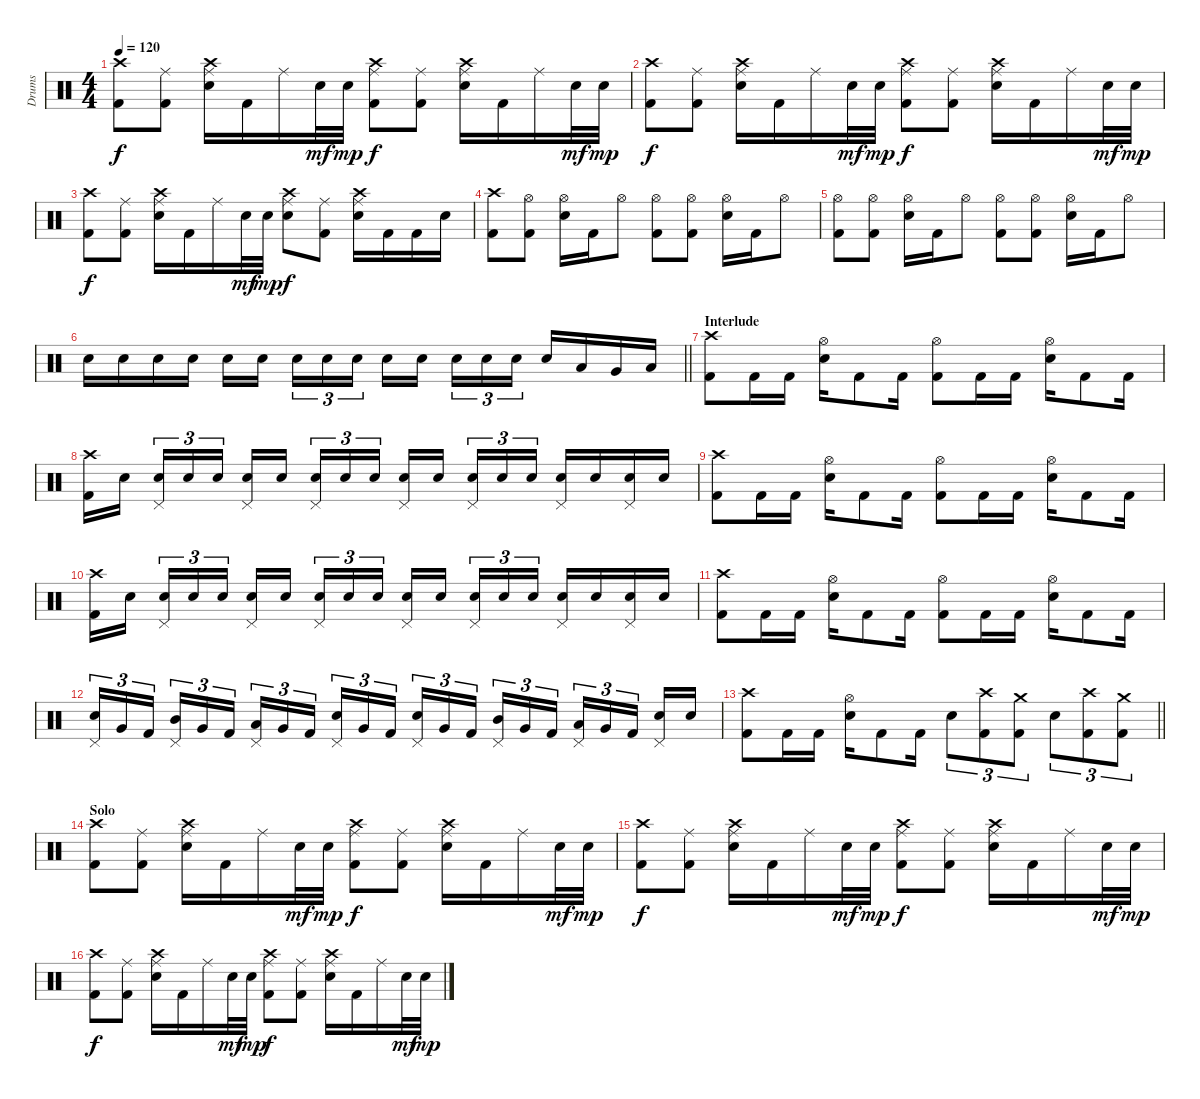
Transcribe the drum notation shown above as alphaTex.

\track ("Drums" "Drums") {instrument percussion}
\staff {score}
\articulation defaults
\ts (4 4)
\tempo 120
\clef neutral
\ks c
("Crash high (hit)" "Kick (hit) 2").8{dy f} ("Ride (middle)" "Kick (hit) 2").8 ("Ride (middle)" "Crash high (hit)" "Snare (hit) 2").16 "Kick (hit) 2".16 "Ride (middle)".16 "Snare (hit) 2".32{dy mf} "Snare (hit) 2".32{dy mp} ("Ride (middle)" "Crash high (hit)" "Kick (hit) 2").8{dy f} ("Ride (middle)" "Kick (hit) 2").8 ("Ride (middle)" "Crash high (hit)" "Snare (hit) 2").16 "Kick (hit) 2".16 "Ride (middle)".16 "Snare (hit) 2".32{dy mf} "Snare (hit) 2".32{dy mp} |
("Crash high (hit)" "Kick (hit) 2").8{dy f} ("Ride (middle)" "Kick (hit) 2").8 ("Ride (middle)" "Crash high (hit)" "Snare (hit) 2").16 "Kick (hit) 2".16 "Ride (middle)".16 "Snare (hit) 2".32{dy mf} "Snare (hit) 2".32{dy mp} ("Ride (middle)" "Crash high (hit)" "Kick (hit) 2").8{dy f} ("Ride (middle)" "Kick (hit) 2").8 ("Ride (middle)" "Crash high (hit)" "Snare (hit) 2").16 "Kick (hit) 2".16 "Ride (middle)".16 "Snare (hit) 2".32{dy mf} "Snare (hit) 2".32{dy mp} |
("Crash high (hit)" "Kick (hit) 2").8{dy f} ("Ride (middle)" "Kick (hit) 2").8 ("Ride (middle)" "Crash high (hit)" "Snare (hit) 2").16 "Kick (hit) 2".16 "Ride (middle)".16 "Snare (hit) 2".32{dy mf} "Snare (hit) 2".32{dy mp} ("Ride (middle)" "Crash high (hit)" "Snare (hit) 2").8{dy f} ("Ride (middle)" "Kick (hit) 2").8 ("Ride (middle)" "Crash high (hit)" "Snare (hit) 2").16 "Kick (hit) 2".16 "Kick (hit) 2".16 "Snare (hit) 2".16 |
("Crash high (hit)" "Kick (hit) 2").8 ("Hi-Hat (open)" "Kick (hit) 2").8 ("Hi-Hat (open)" "Snare (hit) 2").16 "Kick (hit) 2".16 "Hi-Hat (open)".8 ("Hi-Hat (open)" "Kick (hit) 2").8 ("Hi-Hat (open)" "Kick (hit) 2").8 ("Hi-Hat (open)" "Snare (hit) 2").16 "Kick (hit) 2".16 "Hi-Hat (open)".8 |
("Hi-Hat (open)" "Kick (hit) 2").8 ("Hi-Hat (open)" "Kick (hit) 2").8 ("Hi-Hat (open)" "Snare (hit) 2").16 "Kick (hit) 2".16 "Hi-Hat (open)".8 ("Hi-Hat (open)" "Kick (hit) 2").8 ("Hi-Hat (open)" "Kick (hit) 2").8 ("Hi-Hat (open)" "Snare (hit) 2").16 "Kick (hit) 2".16 "Hi-Hat (open)".8 |
\barLineRight lightlight "Snare (hit) 2".16 "Snare (hit) 2".16 "Snare (hit) 2".16 "Snare (hit) 2".16 "Snare (hit) 2".16 "Snare (hit) 2".16{beam splitsecondary} "Snare (hit) 2".16{tu (3 2)} "Snare (hit) 2".16{tu (3 2)} "Snare (hit) 2".16{tu (3 2)} "Snare (hit) 2".16 "Snare (hit) 2".16{beam splitsecondary} "Snare (hit) 2".16{tu (3 2)} "Snare (hit) 2".16{tu (3 2)} "Snare (hit) 2".16{tu (3 2)} "Snare (hit) 2".16 "Low Tom (hit)".16 "Very Low Tom (hit)".16 "Low Floor Tom (hit)".16
|
\section ("" "Interlude")
("Crash high (hit)" "Kick (hit) 2").8 "Kick (hit) 2".16 "Kick (hit) 2".16 ("Hi-Hat (open)" "Snare (hit) 2").16 "Kick (hit) 2".8 "Kick (hit) 2".16 ("Hi-Hat (open)" "Kick (hit) 2").8 "Kick (hit) 2".16 "Kick (hit) 2".16 ("Hi-Hat (open)" "Snare (hit) 2").16 "Kick (hit) 2".8 "Kick (hit) 2".16 |
("Crash high (hit)" "Kick (hit) 2").16 "Snare (hit) 2".16{beam splitsecondary} ("Pedal Hi-Hat (hit)" "Snare (hit) 2").16{tu (3 2)} "Snare (hit) 2".16{tu (3 2)} "Snare (hit) 2".16{tu (3 2)} ("Pedal Hi-Hat (hit)" "Snare (hit) 2").16 "Snare (hit) 2".16{beam splitsecondary} ("Pedal Hi-Hat (hit)" "Snare (hit) 2").16{tu (3 2)} "Snare (hit) 2".16{tu (3 2)} "Snare (hit) 2".16{tu (3 2)} ("Pedal Hi-Hat (hit)" "Snare (hit) 2").16 "Snare (hit) 2".16{beam splitsecondary} ("Pedal Hi-Hat (hit)" "Snare (hit) 2").16{tu (3 2)} "Snare (hit) 2".16{tu (3 2)} "Snare (hit) 2".16{tu (3 2)} ("Pedal Hi-Hat (hit)" "Snare (hit) 2").16 "Snare (hit) 2".16 ("Pedal Hi-Hat (hit)" "Snare (hit) 2").16 "Snare (hit) 2".16 |
("Crash high (hit)" "Kick (hit) 2").8 "Kick (hit) 2".16 "Kick (hit) 2".16 ("Hi-Hat (open)" "Snare (hit) 2").16 "Kick (hit) 2".8 "Kick (hit) 2".16 ("Hi-Hat (open)" "Kick (hit) 2").8 "Kick (hit) 2".16 "Kick (hit) 2".16 ("Hi-Hat (open)" "Snare (hit) 2").16 "Kick (hit) 2".8 "Kick (hit) 2".16 |
("Crash high (hit)" "Kick (hit) 2").16 "Snare (hit) 2".16{beam splitsecondary} ("Pedal Hi-Hat (hit)" "Snare (hit) 2").16{tu (3 2)} "Snare (hit) 2".16{tu (3 2)} "Snare (hit) 2".16{tu (3 2)} ("Pedal Hi-Hat (hit)" "Snare (hit) 2").16 "Snare (hit) 2".16{beam splitsecondary} ("Pedal Hi-Hat (hit)" "Snare (hit) 2").16{tu (3 2)} "Snare (hit) 2".16{tu (3 2)} "Snare (hit) 2".16{tu (3 2)} ("Pedal Hi-Hat (hit)" "Snare (hit) 2").16 "Snare (hit) 2".16{beam splitsecondary} ("Pedal Hi-Hat (hit)" "Snare (hit) 2").16{tu (3 2)} "Snare (hit) 2".16{tu (3 2)} "Snare (hit) 2".16{tu (3 2)} ("Pedal Hi-Hat (hit)" "Snare (hit) 2").16 "Snare (hit) 2".16 ("Pedal Hi-Hat (hit)" "Snare (hit) 2").16 "Snare (hit) 2".16 |
("Crash high (hit)" "Kick (hit) 2").8 "Kick (hit) 2".16 "Kick (hit) 2".16 ("Hi-Hat (open)" "Snare (hit) 2").16 "Kick (hit) 2".8 "Kick (hit) 2".16 ("Hi-Hat (open)" "Kick (hit) 2").8 "Kick (hit) 2".16 "Kick (hit) 2".16 ("Hi-Hat (open)" "Snare (hit) 2").16 "Kick (hit) 2".8 "Kick (hit) 2".16 |
("Pedal Hi-Hat (hit)" "Snare (hit) 2").16{tu (3 2)} "Very Low Tom (hit)".16{tu (3 2)} "Kick (hit) 2".16{tu (3 2) beam splitsecondary} ("Pedal Hi-Hat (hit)" "Mid Tom (hit)").16{tu (3 2)} "Very Low Tom (hit)".16{tu (3 2)} "Kick (hit) 2".16{tu (3 2)} ("Pedal Hi-Hat (hit)" "Low Tom (hit)").16{tu (3 2)} "Very Low Tom (hit)".16{tu (3 2)} "Kick (hit) 2".16{tu (3 2) beam splitsecondary} ("Pedal Hi-Hat (hit)" "Snare (hit) 2").16{tu (3 2)} "Very Low Tom (hit)".16{tu (3 2)} "Kick (hit) 2".16{tu (3 2)} ("Pedal Hi-Hat (hit)" "Snare (hit) 2").16{tu (3 2)} "Very Low Tom (hit)".16{tu (3 2)} "Kick (hit) 2".16{tu (3 2) beam splitsecondary} ("Pedal Hi-Hat (hit)" "Mid Tom (hit)").16{tu (3 2)} "Very Low Tom (hit)".16{tu (3 2)} "Kick (hit) 2".16{tu (3 2)} ("Pedal Hi-Hat (hit)" "Low Tom (hit)").16{tu (3 2)} "Very Low Tom (hit)".16{tu (3 2)} "Kick (hit) 2".16{tu (3 2) beam splitsecondary} ("Pedal Hi-Hat (hit)" "Snare (hit) 2").16 "Snare (hit) 2".16 |
\barLineRight lightlight
("Crash high (hit)" "Kick (hit) 2").8 "Kick (hit) 2".16 "Kick (hit) 2".16 ("Hi-Hat (open)" "Snare (hit) 2").16 "Kick (hit) 2".8 "Kick (hit) 2".16 "Snare (hit) 2".8{tu (3 2)} ("Crash high (hit)" "Kick (hit) 2").8{tu (3 2)} ("Crash medium (hit)" "Kick (hit) 2").8{tu (3 2)} "Snare (hit) 2".8{tu (3 2)} ("Crash high (hit)" "Kick (hit) 2").8{tu (3 2)} ("Crash medium (hit)" "Kick (hit) 2").8{tu (3 2)} |
\section ("" "Solo")
("Crash high (hit)" "Kick (hit) 2").8 ("Ride (middle)" "Kick (hit) 2").8 ("Ride (middle)" "Crash high (hit)" "Snare (hit) 2").16 "Kick (hit) 2".16 "Ride (middle)".16 "Snare (hit) 2".32{dy mf} "Snare (hit) 2".32{dy mp} ("Ride (middle)" "Crash high (hit)" "Kick (hit) 2").8{dy f} ("Ride (middle)" "Kick (hit) 2").8 ("Ride (middle)" "Crash high (hit)" "Snare (hit) 2").16 "Kick (hit) 2".16 "Ride (middle)".16 "Snare (hit) 2".32{dy mf} "Snare (hit) 2".32{dy mp} |
("Crash high (hit)" "Kick (hit) 2").8{dy f} ("Ride (middle)" "Kick (hit) 2").8 ("Ride (middle)" "Crash high (hit)" "Snare (hit) 2").16 "Kick (hit) 2".16 "Ride (middle)".16 "Snare (hit) 2".32{dy mf} "Snare (hit) 2".32{dy mp} ("Ride (middle)" "Crash high (hit)" "Kick (hit) 2").8{dy f} ("Ride (middle)" "Kick (hit) 2").8 ("Ride (middle)" "Crash high (hit)" "Snare (hit) 2").16 "Kick (hit) 2".16 "Ride (middle)".16 "Snare (hit) 2".32{dy mf} "Snare (hit) 2".32{dy mp} |
("Crash high (hit)" "Kick (hit) 2").8{dy f} ("Ride (middle)" "Kick (hit) 2").8 ("Ride (middle)" "Crash high (hit)" "Snare (hit) 2").16 "Kick (hit) 2".16 "Ride (middle)".16 "Snare (hit) 2".32{dy mf} "Snare (hit) 2".32{dy mp} ("Ride (middle)" "Crash high (hit)" "Kick (hit) 2").8{dy f} ("Ride (middle)" "Kick (hit) 2").8 ("Ride (middle)" "Crash high (hit)" "Snare (hit) 2").16 "Kick (hit) 2".16 "Ride (middle)".16 "Snare (hit) 2".32{dy mf} "Snare (hit) 2".32{dy mp}
